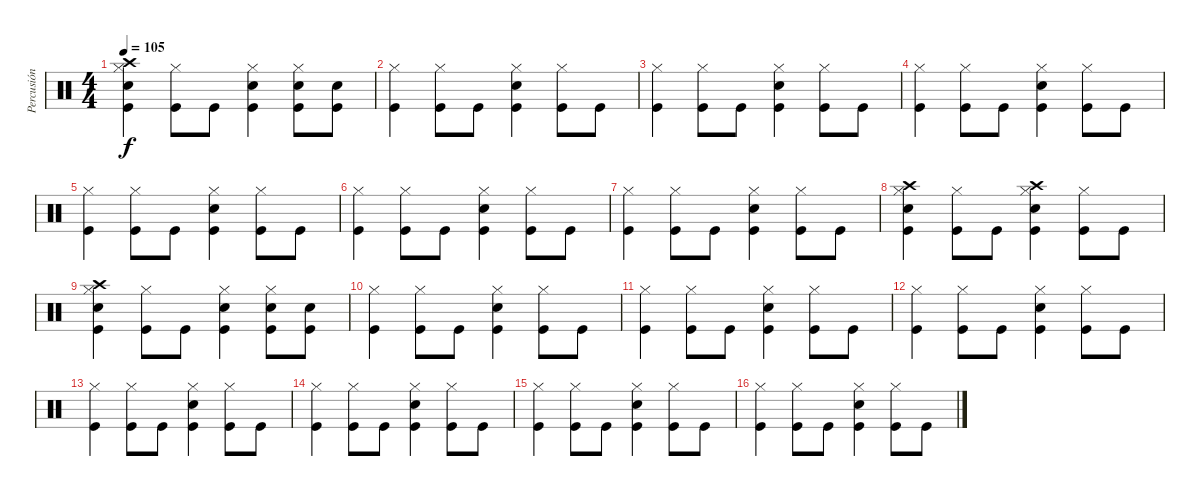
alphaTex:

\track ("Percusión" "Percusión") {instrument percussion}
\staff {score}
\articulation defaults
\ts (4 4)
\tempo 105
\clef neutral
\ks c
("Hi-Hat (closed)" "Crash high (hit)" "Snare (hit) 2" "Kick (hit)").4{dy f} ("Hi-Hat (closed)" "Kick (hit)").8 "Kick (hit)".8 ("Hi-Hat (closed)" "Snare (hit) 2" "Kick (hit)").4 ("Hi-Hat (closed)" "Snare (hit) 2" "Kick (hit)").8 ("Snare (hit) 2" "Kick (hit)").8 |
("Hi-Hat (closed)" "Kick (hit)").4 ("Hi-Hat (closed)" "Kick (hit)").8 "Kick (hit)".8 ("Hi-Hat (closed)" "Snare (hit) 2" "Kick (hit)").4 ("Hi-Hat (closed)" "Kick (hit)").8 "Kick (hit)".8 |
("Hi-Hat (closed)" "Kick (hit)").4 ("Hi-Hat (closed)" "Kick (hit)").8 "Kick (hit)".8 ("Hi-Hat (closed)" "Snare (hit) 2" "Kick (hit)").4 ("Hi-Hat (closed)" "Kick (hit)").8 "Kick (hit)".8 |
("Hi-Hat (closed)" "Kick (hit)").4 ("Hi-Hat (closed)" "Kick (hit)").8 "Kick (hit)".8 ("Hi-Hat (closed)" "Snare (hit) 2" "Kick (hit)").4 ("Hi-Hat (closed)" "Kick (hit)").8 "Kick (hit)".8 |
("Hi-Hat (closed)" "Kick (hit)").4 ("Hi-Hat (closed)" "Kick (hit)").8 "Kick (hit)".8 ("Hi-Hat (closed)" "Snare (hit) 2" "Kick (hit)").4 ("Hi-Hat (closed)" "Kick (hit)").8 "Kick (hit)".8 |
("Hi-Hat (closed)" "Kick (hit)").4 ("Hi-Hat (closed)" "Kick (hit)").8 "Kick (hit)".8 ("Hi-Hat (closed)" "Snare (hit) 2" "Kick (hit)").4 ("Hi-Hat (closed)" "Kick (hit)").8 "Kick (hit)".8 |
("Hi-Hat (closed)" "Kick (hit)").4 ("Hi-Hat (closed)" "Kick (hit)").8 "Kick (hit)".8 ("Hi-Hat (closed)" "Snare (hit) 2" "Kick (hit)").4 ("Hi-Hat (closed)" "Kick (hit)").8 "Kick (hit)".8 |
("Hi-Hat (closed)" "Crash high (hit)" "Snare (hit) 2" "Kick (hit)").4 ("Hi-Hat (closed)" "Kick (hit)").8 "Kick (hit)".8 ("Hi-Hat (closed)" "Crash high (hit)" "Snare (hit) 2" "Kick (hit)").4 ("Hi-Hat (closed)" "Kick (hit)").8 "Kick (hit)".8 |
("Hi-Hat (closed)" "Crash high (hit)" "Snare (hit) 2" "Kick (hit)").4 ("Hi-Hat (closed)" "Kick (hit)").8 "Kick (hit)".8 ("Hi-Hat (closed)" "Snare (hit) 2" "Kick (hit)").4 ("Hi-Hat (closed)" "Snare (hit) 2" "Kick (hit)").8 ("Snare (hit) 2" "Kick (hit)").8 |
("Hi-Hat (closed)" "Kick (hit)").4 ("Hi-Hat (closed)" "Kick (hit)").8 "Kick (hit)".8 ("Hi-Hat (closed)" "Snare (hit) 2" "Kick (hit)").4 ("Hi-Hat (closed)" "Kick (hit)").8 "Kick (hit)".8 |
("Hi-Hat (closed)" "Kick (hit)").4 ("Hi-Hat (closed)" "Kick (hit)").8 "Kick (hit)".8 ("Hi-Hat (closed)" "Snare (hit) 2" "Kick (hit)").4 ("Hi-Hat (closed)" "Kick (hit)").8 "Kick (hit)".8 |
("Hi-Hat (closed)" "Kick (hit)").4 ("Hi-Hat (closed)" "Kick (hit)").8 "Kick (hit)".8 ("Hi-Hat (closed)" "Snare (hit) 2" "Kick (hit)").4 ("Hi-Hat (closed)" "Kick (hit)").8 "Kick (hit)".8 |
("Hi-Hat (closed)" "Kick (hit)").4 ("Hi-Hat (closed)" "Kick (hit)").8 "Kick (hit)".8 ("Hi-Hat (closed)" "Snare (hit) 2" "Kick (hit)").4 ("Hi-Hat (closed)" "Kick (hit)").8 "Kick (hit)".8 |
("Hi-Hat (closed)" "Kick (hit)").4 ("Hi-Hat (closed)" "Kick (hit)").8 "Kick (hit)".8 ("Hi-Hat (closed)" "Snare (hit) 2" "Kick (hit)").4 ("Hi-Hat (closed)" "Kick (hit)").8 "Kick (hit)".8 |
("Hi-Hat (closed)" "Kick (hit)").4 ("Hi-Hat (closed)" "Kick (hit)").8 "Kick (hit)".8 ("Hi-Hat (closed)" "Snare (hit) 2" "Kick (hit)").4 ("Hi-Hat (closed)" "Kick (hit)").8 "Kick (hit)".8 |
("Hi-Hat (closed)" "Kick (hit)").4 ("Hi-Hat (closed)" "Kick (hit)").8 "Kick (hit)".8 ("Hi-Hat (closed)" "Snare (hit) 2" "Kick (hit)").4 ("Hi-Hat (closed)" "Kick (hit)").8 "Kick (hit)".8
